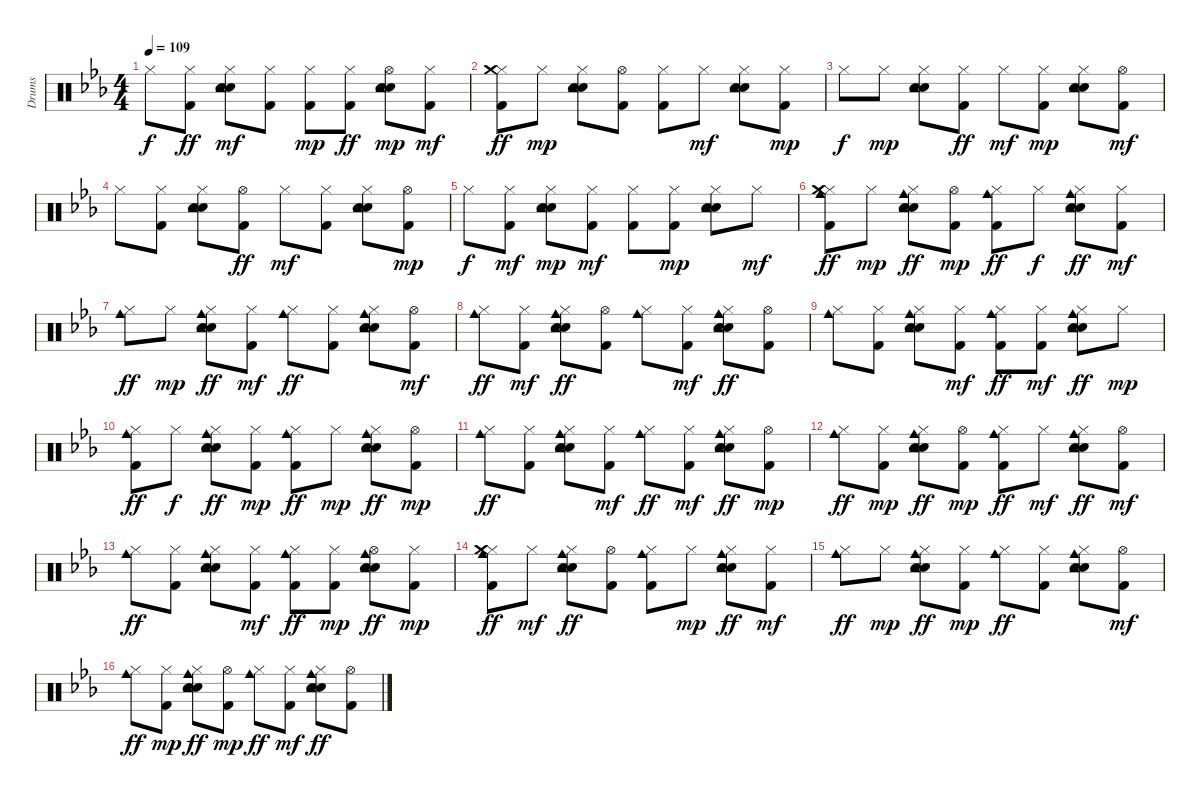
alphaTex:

\track ("Drums" "Drums") {instrument percussion}
\staff {score}
\articulation defaults
\ts (4 4)
\tempo 109
\clef neutral
\ks eb "Hi-Hat (closed)".8{dy f}
("Kick (hit) 2" "Hi-Hat (closed)").8{dy ff} ("Hand Clap (hit)" "Electric Snare (hit)" "Hi-Hat (closed)" "Tambourine (hit)").8{dy mf} ("Kick (hit) 2" "Hi-Hat (closed)").8 ("Kick (hit) 2" "Hi-Hat (closed)").8{dy mp} ("Kick (hit) 2" "Hi-Hat (closed)").8{dy ff} ("Hand Clap (hit)" "Electric Snare (hit)" "Hi-Hat (open)" "Tambourine (hit)").8{dy mp} ("Kick (hit) 2" "Hi-Hat (closed)").8{dy mf} |
("Kick (hit) 2" "Hi-Hat (closed)" "Crash medium (hit)").8{dy ff} "Hi-Hat (closed)".8{dy mp} ("Hand Clap (hit)" "Electric Snare (hit)" "Hi-Hat (closed)" "Tambourine (hit)").8 ("Kick (hit) 2" "Hi-Hat (open)").8 ("Kick (hit) 2" "Hi-Hat (closed)").8 "Hi-Hat (closed)".8{dy mf} ("Hand Clap (hit)" "Electric Snare (hit)" "Hi-Hat (closed)" "Tambourine (hit)").8 ("Kick (hit) 2" "Hi-Hat (closed)").8{dy mp} |
"Hi-Hat (closed)".8{dy f} "Hi-Hat (closed)".8{dy mp} ("Hand Clap (hit)" "Electric Snare (hit)" "Hi-Hat (closed)" "Tambourine (hit)").8 ("Kick (hit) 2" "Hi-Hat (closed)").8{dy ff} "Hi-Hat (closed)".8{dy mf} ("Kick (hit) 2" "Hi-Hat (closed)").8{dy mp} ("Hand Clap (hit)" "Electric Snare (hit)" "Hi-Hat (closed)" "Tambourine (hit)").8 ("Kick (hit) 2" "Hi-Hat (open)").8{dy mf} |
"Hi-Hat (closed)".8 ("Kick (hit) 2" "Hi-Hat (closed)").8 ("Hand Clap (hit)" "Electric Snare (hit)" "Hi-Hat (closed)" "Tambourine (hit)").8 ("Kick (hit) 2" "Hi-Hat (open)").8{dy ff} "Hi-Hat (closed)".8{dy mf} ("Kick (hit) 2" "Hi-Hat (closed)").8 ("Hand Clap (hit)" "Electric Snare (hit)" "Hi-Hat (closed)" "Tambourine (hit)").8 ("Kick (hit) 2" "Hi-Hat (open)").8{dy mp} |
"Hi-Hat (closed)".8{dy f} ("Kick (hit) 2" "Hi-Hat (closed)").8{dy mf} ("Hand Clap (hit)" "Electric Snare (hit)" "Hi-Hat (closed)" "Tambourine (hit)").8{dy mp} ("Kick (hit) 2" "Hi-Hat (closed)").8{dy mf} ("Kick (hit) 2" "Hi-Hat (closed)").8 ("Kick (hit) 2" "Hi-Hat (closed)").8{dy mp} ("Hand Clap (hit)" "Electric Snare (hit)" "Hi-Hat (closed)" "Tambourine (hit)").8 "Hi-Hat (closed)".8{dy mf} |
("Kick (hit) 2" "Hi-Hat (closed)" "Cowbell medium (hit)" "Crash medium (hit)").8{dy ff} "Hi-Hat (closed)".8{dy mp} ("Hand Clap (hit)" "Electric Snare (hit)" "Hi-Hat (closed)" "Tambourine (hit)" "Cowbell medium (hit)").8{dy ff} ("Kick (hit) 2" "Hi-Hat (open)").8{dy mp} ("Kick (hit) 2" "Hi-Hat (closed)" "Cowbell medium (hit)").8{dy ff} "Hi-Hat (closed)".8{dy f} ("Hand Clap (hit)" "Electric Snare (hit)" "Hi-Hat (closed)" "Tambourine (hit)" "Cowbell medium (hit)").8{dy ff} ("Kick (hit) 2" "Hi-Hat (closed)").8{dy mf} |
("Hi-Hat (closed)" "Cowbell medium (hit)").8{dy ff} "Hi-Hat (closed)".8{dy mp} ("Hand Clap (hit)" "Electric Snare (hit)" "Hi-Hat (closed)" "Tambourine (hit)" "Cowbell medium (hit)").8{dy ff} ("Kick (hit) 2" "Hi-Hat (closed)").8{dy mf} ("Hi-Hat (closed)" "Cowbell medium (hit)").8{dy ff} ("Kick (hit) 2" "Hi-Hat (closed)").8 ("Hand Clap (hit)" "Electric Snare (hit)" "Hi-Hat (closed)" "Tambourine (hit)" "Cowbell medium (hit)").8 ("Kick (hit) 2" "Hi-Hat (open)").8{dy mf} |
("Hi-Hat (closed)" "Cowbell medium (hit)").8{dy ff} ("Kick (hit) 2" "Hi-Hat (closed)").8{dy mf} ("Hand Clap (hit)" "Electric Snare (hit)" "Hi-Hat (closed)" "Tambourine (hit)" "Cowbell medium (hit)").8{dy ff} ("Kick (hit) 2" "Hi-Hat (open)").8 ("Hi-Hat (closed)" "Cowbell medium (hit)").8 ("Kick (hit) 2" "Hi-Hat (closed)").8{dy mf} ("Hand Clap (hit)" "Electric Snare (hit)" "Hi-Hat (closed)" "Tambourine (hit)" "Cowbell medium (hit)").8{dy ff} ("Kick (hit) 2" "Hi-Hat (open)").8 |
("Hi-Hat (closed)" "Cowbell medium (hit)").8 ("Kick (hit) 2" "Hi-Hat (closed)").8 ("Hand Clap (hit)" "Electric Snare (hit)" "Hi-Hat (closed)" "Tambourine (hit)" "Cowbell medium (hit)").8 ("Kick (hit) 2" "Hi-Hat (closed)").8{dy mf} ("Kick (hit) 2" "Hi-Hat (closed)" "Cowbell medium (hit)").8{dy ff} ("Kick (hit) 2" "Hi-Hat (closed)").8{dy mf} ("Hand Clap (hit)" "Electric Snare (hit)" "Hi-Hat (closed)" "Tambourine (hit)" "Cowbell medium (hit)").8{dy ff} "Hi-Hat (closed)".8{dy mp} |
("Kick (hit) 2" "Hi-Hat (closed)" "Cowbell medium (hit)").8{dy ff} "Hi-Hat (closed)".8{dy f} ("Hand Clap (hit)" "Electric Snare (hit)" "Hi-Hat (closed)" "Tambourine (hit)" "Cowbell medium (hit)").8{dy ff} ("Kick (hit) 2" "Hi-Hat (closed)").8{dy mp} ("Kick (hit) 2" "Hi-Hat (closed)" "Cowbell medium (hit)").8{dy ff} "Hi-Hat (closed)".8{dy mp} ("Hand Clap (hit)" "Electric Snare (hit)" "Hi-Hat (closed)" "Tambourine (hit)" "Cowbell medium (hit)").8{dy ff} ("Kick (hit) 2" "Hi-Hat (open)").8{dy mp} |
("Hi-Hat (closed)" "Cowbell medium (hit)").8{dy ff} ("Kick (hit) 2" "Hi-Hat (closed)").8 ("Hand Clap (hit)" "Electric Snare (hit)" "Hi-Hat (closed)" "Tambourine (hit)" "Cowbell medium (hit)").8 ("Kick (hit) 2" "Hi-Hat (closed)").8{dy mf} ("Hi-Hat (closed)" "Cowbell medium (hit)").8{dy ff} ("Kick (hit) 2" "Hi-Hat (closed)").8{dy mf} ("Hand Clap (hit)" "Electric Snare (hit)" "Hi-Hat (closed)" "Tambourine (hit)" "Cowbell medium (hit)").8{dy ff} ("Kick (hit) 2" "Hi-Hat (open)").8{dy mp} |
("Hi-Hat (closed)" "Cowbell medium (hit)").8{dy ff} ("Kick (hit) 2" "Hi-Hat (closed)").8{dy mp} ("Hand Clap (hit)" "Electric Snare (hit)" "Hi-Hat (closed)" "Tambourine (hit)" "Cowbell medium (hit)").8{dy ff} ("Kick (hit) 2" "Hi-Hat (open)").8{dy mp} ("Kick (hit) 2" "Hi-Hat (closed)" "Cowbell medium (hit)").8{dy ff} "Hi-Hat (closed)".8{dy mf} ("Hand Clap (hit)" "Electric Snare (hit)" "Hi-Hat (closed)" "Tambourine (hit)" "Cowbell medium (hit)").8{dy ff} ("Kick (hit) 2" "Hi-Hat (open)").8{dy mf} |
("Hi-Hat (closed)" "Cowbell medium (hit)").8{dy ff} ("Kick (hit) 2" "Hi-Hat (closed)").8 ("Hand Clap (hit)" "Electric Snare (hit)" "Hi-Hat (closed)" "Tambourine (hit)" "Cowbell medium (hit)").8 ("Kick (hit) 2" "Hi-Hat (closed)").8{dy mf} ("Kick (hit) 2" "Hi-Hat (closed)" "Cowbell medium (hit)").8{dy ff} ("Kick (hit) 2" "Hi-Hat (closed)").8{dy mp} ("Hand Clap (hit)" "Electric Snare (hit)" "Hi-Hat (open)" "Tambourine (hit)" "Cowbell medium (hit)").8{dy ff} ("Kick (hit) 2" "Hi-Hat (closed)").8{dy mp} |
("Kick (hit) 2" "Hi-Hat (closed)" "Cowbell medium (hit)" "Crash medium (hit)").8{dy ff} "Hi-Hat (closed)".8{dy mf} ("Hand Clap (hit)" "Electric Snare (hit)" "Hi-Hat (closed)" "Tambourine (hit)" "Cowbell medium (hit)").8{dy ff} ("Kick (hit) 2" "Hi-Hat (open)").8 ("Kick (hit) 2" "Hi-Hat (closed)" "Cowbell medium (hit)").8 "Hi-Hat (closed)".8{dy mp} ("Hand Clap (hit)" "Electric Snare (hit)" "Hi-Hat (closed)" "Tambourine (hit)" "Cowbell medium (hit)").8{dy ff} ("Kick (hit) 2" "Hi-Hat (closed)").8{dy mf} |
("Hi-Hat (closed)" "Cowbell medium (hit)").8{dy ff} "Hi-Hat (closed)".8{dy mp} ("Hand Clap (hit)" "Electric Snare (hit)" "Hi-Hat (closed)" "Tambourine (hit)" "Cowbell medium (hit)").8{dy ff} ("Kick (hit) 2" "Hi-Hat (closed)").8{dy mp} ("Hi-Hat (closed)" "Cowbell medium (hit)").8{dy ff} ("Kick (hit) 2" "Hi-Hat (closed)").8 ("Hand Clap (hit)" "Electric Snare (hit)" "Hi-Hat (closed)" "Tambourine (hit)" "Cowbell medium (hit)").8 ("Kick (hit) 2" "Hi-Hat (open)").8{dy mf} |
("Hi-Hat (closed)" "Cowbell medium (hit)").8{dy ff} ("Kick (hit) 2" "Hi-Hat (closed)").8{dy mp} ("Hand Clap (hit)" "Electric Snare (hit)" "Hi-Hat (closed)" "Tambourine (hit)" "Cowbell medium (hit)").8{dy ff} ("Kick (hit) 2" "Hi-Hat (open)").8{dy mp} ("Hi-Hat (closed)" "Cowbell medium (hit)").8{dy ff} ("Kick (hit) 2" "Hi-Hat (closed)").8{dy mf} ("Hand Clap (hit)" "Electric Snare (hit)" "Hi-Hat (closed)" "Tambourine (hit)" "Cowbell medium (hit)").8{dy ff} ("Kick (hit) 2" "Hi-Hat (open)").8
